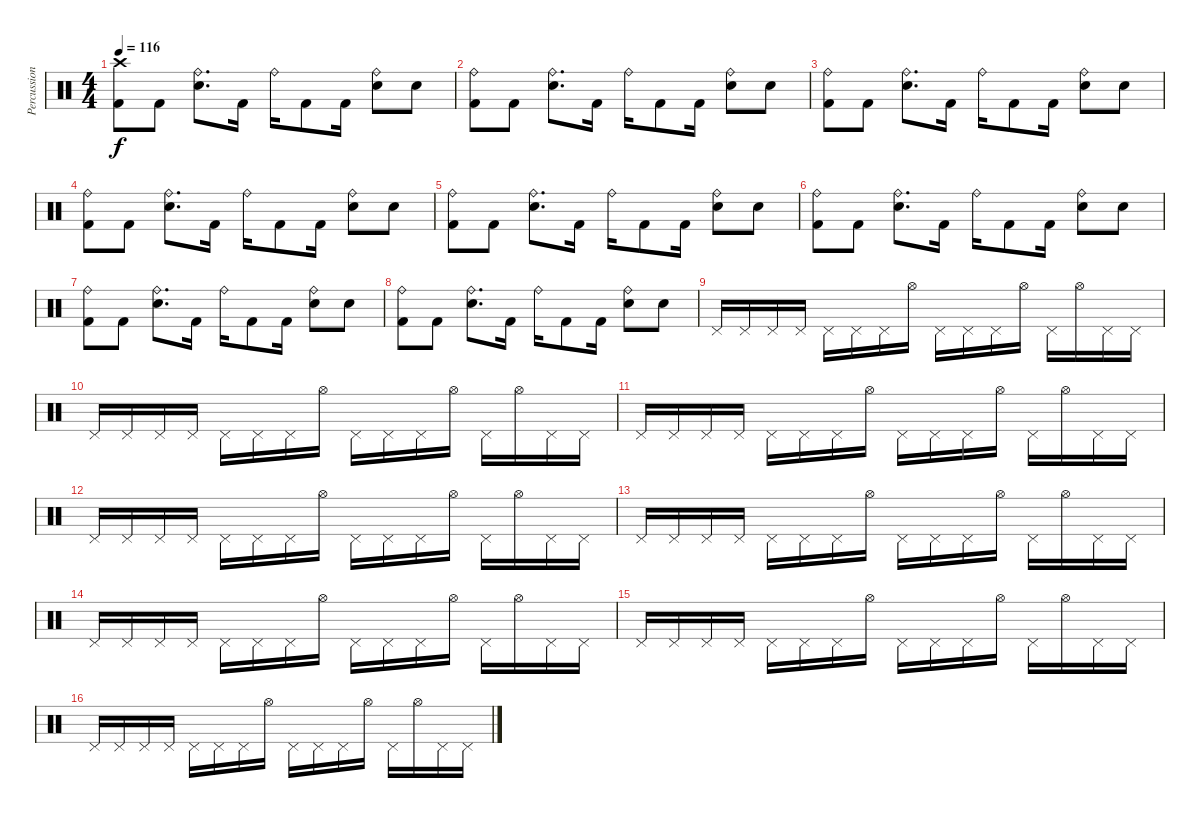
\track ("Percussions" "Percussion") {instrument percussion}
\staff {score}
\articulation defaults
\ts (4 4)
\tempo 116
\clef neutral
\ks c
("Crash high (hit)" "Kick (hit) 2").8{dy f} "Kick (hit) 2".8 ("Ride (bell)" "Snare (hit) 2").8{d} "Kick (hit) 2".16 "Ride (bell)".16 "Kick (hit) 2".8 "Kick (hit) 2".16 ("Ride (bell)" "Snare (hit) 2").8 "Snare (hit) 2".8 |
("Ride (bell)" "Kick (hit) 2").8 "Kick (hit) 2".8 ("Ride (bell)" "Snare (hit) 2").8{d} "Kick (hit) 2".16 "Ride (bell)".16 "Kick (hit) 2".8 "Kick (hit) 2".16 ("Ride (bell)" "Snare (hit) 2").8 "Snare (hit) 2".8 |
("Ride (bell)" "Kick (hit) 2").8 "Kick (hit) 2".8 ("Ride (bell)" "Snare (hit) 2").8{d} "Kick (hit) 2".16 "Ride (bell)".16 "Kick (hit) 2".8 "Kick (hit) 2".16 ("Ride (bell)" "Snare (hit) 2").8 "Snare (hit) 2".8 |
("Ride (bell)" "Kick (hit) 2").8 "Kick (hit) 2".8 ("Ride (bell)" "Snare (hit) 2").8{d} "Kick (hit) 2".16 "Ride (bell)".16 "Kick (hit) 2".8 "Kick (hit) 2".16 ("Ride (bell)" "Snare (hit) 2").8 "Snare (hit) 2".8 |
("Ride (bell)" "Kick (hit) 2").8 "Kick (hit) 2".8 ("Ride (bell)" "Snare (hit) 2").8{d} "Kick (hit) 2".16 "Ride (bell)".16 "Kick (hit) 2".8 "Kick (hit) 2".16 ("Ride (bell)" "Snare (hit) 2").8 "Snare (hit) 2".8 |
("Ride (bell)" "Kick (hit) 2").8 "Kick (hit) 2".8 ("Ride (bell)" "Snare (hit) 2").8{d} "Kick (hit) 2".16 "Ride (bell)".16 "Kick (hit) 2".8 "Kick (hit) 2".16 ("Ride (bell)" "Snare (hit) 2").8 "Snare (hit) 2".8 |
("Ride (bell)" "Kick (hit) 2").8 "Kick (hit) 2".8 ("Ride (bell)" "Snare (hit) 2").8{d} "Kick (hit) 2".16 "Ride (bell)".16 "Kick (hit) 2".8 "Kick (hit) 2".16 ("Ride (bell)" "Snare (hit) 2").8 "Snare (hit) 2".8 |
("Ride (bell)" "Kick (hit) 2").8 "Kick (hit) 2".8 ("Ride (bell)" "Snare (hit) 2").8{d} "Kick (hit) 2".16 "Ride (bell)".16 "Kick (hit) 2".8 "Kick (hit) 2".16 ("Ride (bell)" "Snare (hit) 2").8 "Snare (hit) 2".8 |
"Pedal Hi-Hat (hit)".16 "Pedal Hi-Hat (hit)".16 "Pedal Hi-Hat (hit)".16 "Pedal Hi-Hat (hit)".16 "Pedal Hi-Hat (hit)".16 "Pedal Hi-Hat (hit)".16 "Pedal Hi-Hat (hit)".16 "Hi-Hat (open)".16 "Pedal Hi-Hat (hit)".16 "Pedal Hi-Hat (hit)".16 "Pedal Hi-Hat (hit)".16 "Hi-Hat (open)".16 "Pedal Hi-Hat (hit)".16 "Hi-Hat (open)".16 "Pedal Hi-Hat (hit)".16 "Pedal Hi-Hat (hit)".16 |
"Pedal Hi-Hat (hit)".16 "Pedal Hi-Hat (hit)".16 "Pedal Hi-Hat (hit)".16 "Pedal Hi-Hat (hit)".16 "Pedal Hi-Hat (hit)".16 "Pedal Hi-Hat (hit)".16 "Pedal Hi-Hat (hit)".16 "Hi-Hat (open)".16 "Pedal Hi-Hat (hit)".16 "Pedal Hi-Hat (hit)".16 "Pedal Hi-Hat (hit)".16 "Hi-Hat (open)".16 "Pedal Hi-Hat (hit)".16 "Hi-Hat (open)".16 "Pedal Hi-Hat (hit)".16 "Pedal Hi-Hat (hit)".16 |
"Pedal Hi-Hat (hit)".16 "Pedal Hi-Hat (hit)".16 "Pedal Hi-Hat (hit)".16 "Pedal Hi-Hat (hit)".16 "Pedal Hi-Hat (hit)".16 "Pedal Hi-Hat (hit)".16 "Pedal Hi-Hat (hit)".16 "Hi-Hat (open)".16 "Pedal Hi-Hat (hit)".16 "Pedal Hi-Hat (hit)".16 "Pedal Hi-Hat (hit)".16 "Hi-Hat (open)".16 "Pedal Hi-Hat (hit)".16 "Hi-Hat (open)".16 "Pedal Hi-Hat (hit)".16 "Pedal Hi-Hat (hit)".16 |
"Pedal Hi-Hat (hit)".16 "Pedal Hi-Hat (hit)".16 "Pedal Hi-Hat (hit)".16 "Pedal Hi-Hat (hit)".16 "Pedal Hi-Hat (hit)".16 "Pedal Hi-Hat (hit)".16 "Pedal Hi-Hat (hit)".16 "Hi-Hat (open)".16 "Pedal Hi-Hat (hit)".16 "Pedal Hi-Hat (hit)".16 "Pedal Hi-Hat (hit)".16 "Hi-Hat (open)".16 "Pedal Hi-Hat (hit)".16 "Hi-Hat (open)".16 "Pedal Hi-Hat (hit)".16 "Pedal Hi-Hat (hit)".16 |
"Pedal Hi-Hat (hit)".16 "Pedal Hi-Hat (hit)".16 "Pedal Hi-Hat (hit)".16 "Pedal Hi-Hat (hit)".16 "Pedal Hi-Hat (hit)".16 "Pedal Hi-Hat (hit)".16 "Pedal Hi-Hat (hit)".16 "Hi-Hat (open)".16 "Pedal Hi-Hat (hit)".16 "Pedal Hi-Hat (hit)".16 "Pedal Hi-Hat (hit)".16 "Hi-Hat (open)".16 "Pedal Hi-Hat (hit)".16 "Hi-Hat (open)".16 "Pedal Hi-Hat (hit)".16 "Pedal Hi-Hat (hit)".16 |
"Pedal Hi-Hat (hit)".16 "Pedal Hi-Hat (hit)".16 "Pedal Hi-Hat (hit)".16 "Pedal Hi-Hat (hit)".16 "Pedal Hi-Hat (hit)".16 "Pedal Hi-Hat (hit)".16 "Pedal Hi-Hat (hit)".16 "Hi-Hat (open)".16 "Pedal Hi-Hat (hit)".16 "Pedal Hi-Hat (hit)".16 "Pedal Hi-Hat (hit)".16 "Hi-Hat (open)".16 "Pedal Hi-Hat (hit)".16 "Hi-Hat (open)".16 "Pedal Hi-Hat (hit)".16 "Pedal Hi-Hat (hit)".16 |
"Pedal Hi-Hat (hit)".16 "Pedal Hi-Hat (hit)".16 "Pedal Hi-Hat (hit)".16 "Pedal Hi-Hat (hit)".16 "Pedal Hi-Hat (hit)".16 "Pedal Hi-Hat (hit)".16 "Pedal Hi-Hat (hit)".16 "Hi-Hat (open)".16 "Pedal Hi-Hat (hit)".16 "Pedal Hi-Hat (hit)".16 "Pedal Hi-Hat (hit)".16 "Hi-Hat (open)".16 "Pedal Hi-Hat (hit)".16 "Hi-Hat (open)".16 "Pedal Hi-Hat (hit)".16 "Pedal Hi-Hat (hit)".16 |
"Pedal Hi-Hat (hit)".16 "Pedal Hi-Hat (hit)".16 "Pedal Hi-Hat (hit)".16 "Pedal Hi-Hat (hit)".16 "Pedal Hi-Hat (hit)".16 "Pedal Hi-Hat (hit)".16 "Pedal Hi-Hat (hit)".16 "Hi-Hat (open)".16 "Pedal Hi-Hat (hit)".16 "Pedal Hi-Hat (hit)".16 "Pedal Hi-Hat (hit)".16 "Hi-Hat (open)".16 "Pedal Hi-Hat (hit)".16 "Hi-Hat (open)".16 "Pedal Hi-Hat (hit)".16 "Pedal Hi-Hat (hit)".16
